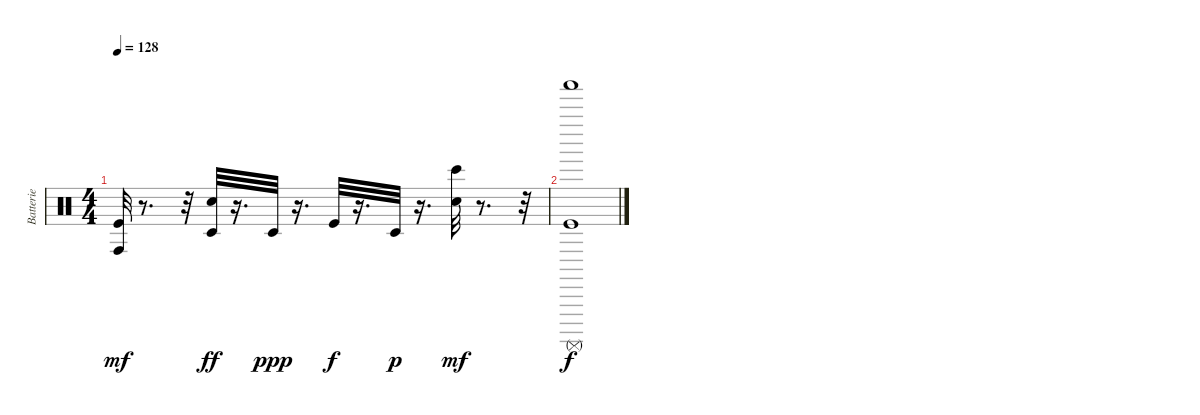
\track ("Batterie" "Batterie") {instrument percussion}
\staff {score}
\articulation defaults
\ts (4 4)
\tempo 128
\clef neutral
\ks c
("Conga high (hit)" "Kick (hit)").32{dy mf} r.8{d} r.32 ("Timbale low (hit)" "Electric Snare (hit)").32{dy ff} r.16{d} "Timbale low (hit)".32{dy ppp} r.16{d} "Kick (hit)".32{dy f} r.16{d} "Timbale low (hit)".32{dy p} r.16{d} ("Electric Snare (hit)" "Bongo High (hit)").32{dy mf} r.8{d} r.32 |
("Shaker (hit)" "Surdo (mute)" "Kick (hit)").1{dy f}
